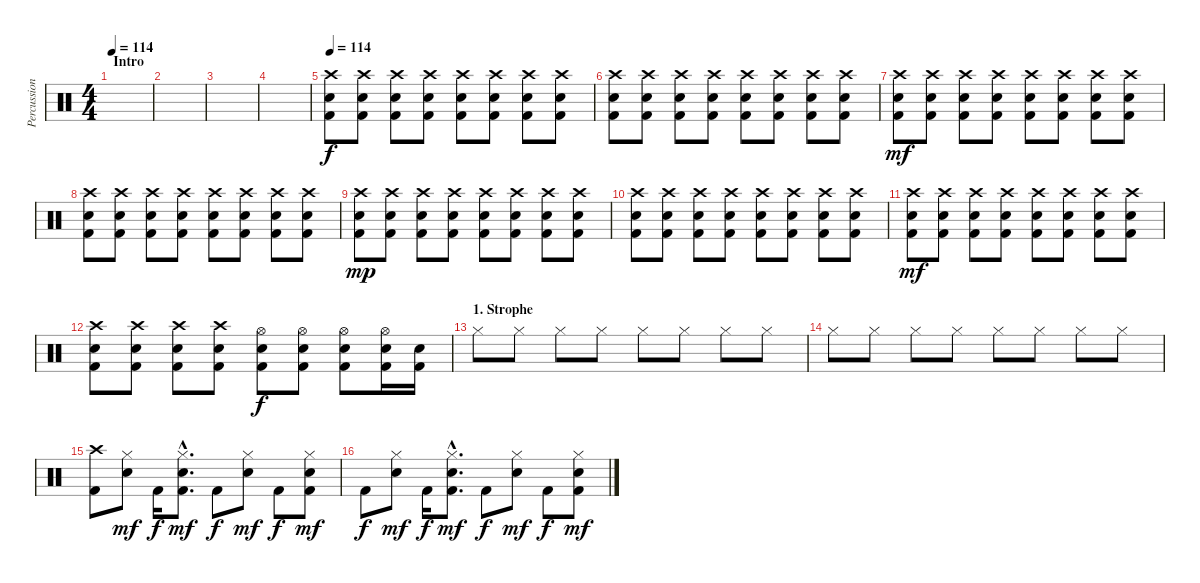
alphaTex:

\track ("Percussion" "Percussion") {instrument percussion}
\staff {score}
\articulation defaults
\ts (4 4)
\section ("" "Intro")
\tempo 114
\tempo 100
\tempo 114
\clef neutral
\ks c
|
|
|
|
\tempo 114
("Crash high (hit)" "Electric Snare (hit)" "Kick (hit) 2").8 ("Crash high (hit)" "Electric Snare (hit)" "Kick (hit) 2").8 ("Crash high (hit)" "Electric Snare (hit)" "Kick (hit) 2").8 ("Crash high (hit)" "Electric Snare (hit)" "Kick (hit) 2").8 ("Crash high (hit)" "Electric Snare (hit)" "Kick (hit) 2").8 ("Crash high (hit)" "Electric Snare (hit)" "Kick (hit) 2").8 ("Crash high (hit)" "Electric Snare (hit)" "Kick (hit) 2").8 ("Crash high (hit)" "Electric Snare (hit)" "Kick (hit) 2").8 |
("Crash high (hit)" "Electric Snare (hit)" "Kick (hit) 2").8 ("Crash high (hit)" "Electric Snare (hit)" "Kick (hit) 2").8 ("Crash high (hit)" "Electric Snare (hit)" "Kick (hit) 2").8 ("Crash high (hit)" "Electric Snare (hit)" "Kick (hit) 2").8 ("Crash high (hit)" "Electric Snare (hit)" "Kick (hit) 2").8 ("Crash high (hit)" "Electric Snare (hit)" "Kick (hit) 2").8 ("Crash high (hit)" "Electric Snare (hit)" "Kick (hit) 2").8 ("Crash high (hit)" "Electric Snare (hit)" "Kick (hit) 2").8 |
("Crash high (hit)" "Electric Snare (hit)" "Kick (hit) 2").8{dy mf} ("Crash high (hit)" "Electric Snare (hit)" "Kick (hit) 2").8 ("Crash high (hit)" "Electric Snare (hit)" "Kick (hit) 2").8 ("Crash high (hit)" "Electric Snare (hit)" "Kick (hit) 2").8 ("Crash high (hit)" "Electric Snare (hit)" "Kick (hit) 2").8 ("Crash high (hit)" "Electric Snare (hit)" "Kick (hit) 2").8 ("Crash high (hit)" "Electric Snare (hit)" "Kick (hit) 2").8 ("Crash high (hit)" "Electric Snare (hit)" "Kick (hit) 2").8 |
("Crash high (hit)" "Electric Snare (hit)" "Kick (hit) 2").8 ("Crash high (hit)" "Electric Snare (hit)" "Kick (hit) 2").8 ("Crash high (hit)" "Electric Snare (hit)" "Kick (hit) 2").8 ("Crash high (hit)" "Electric Snare (hit)" "Kick (hit) 2").8 ("Crash high (hit)" "Electric Snare (hit)" "Kick (hit) 2").8 ("Crash high (hit)" "Electric Snare (hit)" "Kick (hit) 2").8 ("Crash high (hit)" "Electric Snare (hit)" "Kick (hit) 2").8 ("Crash high (hit)" "Electric Snare (hit)" "Kick (hit) 2").8 |
("Crash high (hit)" "Electric Snare (hit)" "Kick (hit) 2").8{dy mp} ("Crash high (hit)" "Electric Snare (hit)" "Kick (hit) 2").8 ("Crash high (hit)" "Electric Snare (hit)" "Kick (hit) 2").8 ("Crash high (hit)" "Electric Snare (hit)" "Kick (hit) 2").8 ("Crash high (hit)" "Electric Snare (hit)" "Kick (hit) 2").8 ("Crash high (hit)" "Electric Snare (hit)" "Kick (hit) 2").8 ("Crash high (hit)" "Electric Snare (hit)" "Kick (hit) 2").8 ("Crash high (hit)" "Electric Snare (hit)" "Kick (hit) 2").8 |
("Crash high (hit)" "Electric Snare (hit)" "Kick (hit) 2").8 ("Crash high (hit)" "Electric Snare (hit)" "Kick (hit) 2").8 ("Crash high (hit)" "Electric Snare (hit)" "Kick (hit) 2").8 ("Crash high (hit)" "Electric Snare (hit)" "Kick (hit) 2").8 ("Crash high (hit)" "Electric Snare (hit)" "Kick (hit) 2").8 ("Crash high (hit)" "Electric Snare (hit)" "Kick (hit) 2").8 ("Crash high (hit)" "Electric Snare (hit)" "Kick (hit) 2").8 ("Crash high (hit)" "Electric Snare (hit)" "Kick (hit) 2").8 |
("Crash high (hit)" "Electric Snare (hit)" "Kick (hit) 2").8{dy mf} ("Crash high (hit)" "Electric Snare (hit)" "Kick (hit) 2").8 ("Crash high (hit)" "Electric Snare (hit)" "Kick (hit) 2").8 ("Crash high (hit)" "Electric Snare (hit)" "Kick (hit) 2").8 ("Crash high (hit)" "Electric Snare (hit)" "Kick (hit) 2").8 ("Crash high (hit)" "Electric Snare (hit)" "Kick (hit) 2").8 ("Crash high (hit)" "Electric Snare (hit)" "Kick (hit) 2").8 ("Crash high (hit)" "Electric Snare (hit)" "Kick (hit) 2").8 |
("Crash high (hit)" "Electric Snare (hit)" "Kick (hit) 2").8 ("Crash high (hit)" "Electric Snare (hit)" "Kick (hit) 2").8 ("Crash high (hit)" "Electric Snare (hit)" "Kick (hit) 2").8 ("Crash high (hit)" "Electric Snare (hit)" "Kick (hit) 2").8 ("Hi-Hat (open)" "Electric Snare (hit)" "Kick (hit) 2").8{dy f} ("Hi-Hat (open)" "Electric Snare (hit)" "Kick (hit) 2").8 ("Hi-Hat (open)" "Electric Snare (hit)" "Kick (hit) 2").8 ("Hi-Hat (open)" "Electric Snare (hit)" "Kick (hit) 2").16 ("Snare (hit) 2" "Kick (hit) 2").16 |
\section ("" "1. Strophe")
"Hi-Hat (closed)".8 "Hi-Hat (closed)".8 "Hi-Hat (closed)".8 "Hi-Hat (closed)".8 "Hi-Hat (closed)".8 "Hi-Hat (closed)".8 "Hi-Hat (closed)".8 "Hi-Hat (closed)".8 |
"Hi-Hat (closed)".8 "Hi-Hat (closed)".8 "Hi-Hat (closed)".8 "Hi-Hat (closed)".8 "Hi-Hat (closed)".8 "Hi-Hat (closed)".8 "Hi-Hat (closed)".8 "Hi-Hat (closed)".8 |
("Crash high (hit)" "Kick (hit) 2").8 ("Hi-Hat (closed)" "Electric Snare (hit)").8{dy mf} "Kick (hit) 2".16{dy f} ("Hi-Hat (closed)"{hac} "Electric Snare (hit)"{hac} "Kick (hit) 2"{hac}).8{d dy mf} "Kick (hit) 2".8{dy f} ("Hi-Hat (closed)" "Electric Snare (hit)").8{dy mf} "Kick (hit) 2".8{dy f} ("Hi-Hat (closed)" "Electric Snare (hit)" "Kick (hit) 2").8{dy mf} |
"Kick (hit) 2".8{dy f} ("Hi-Hat (closed)" "Electric Snare (hit)").8{dy mf} "Kick (hit) 2".16{dy f} ("Hi-Hat (closed)"{hac} "Electric Snare (hit)"{hac} "Kick (hit) 2"{hac}).8{d dy mf} "Kick (hit) 2".8{dy f} ("Hi-Hat (closed)" "Electric Snare (hit)").8{dy mf} "Kick (hit) 2".8{dy f} ("Hi-Hat (closed)" "Electric Snare (hit)" "Kick (hit) 2").8{dy mf}
